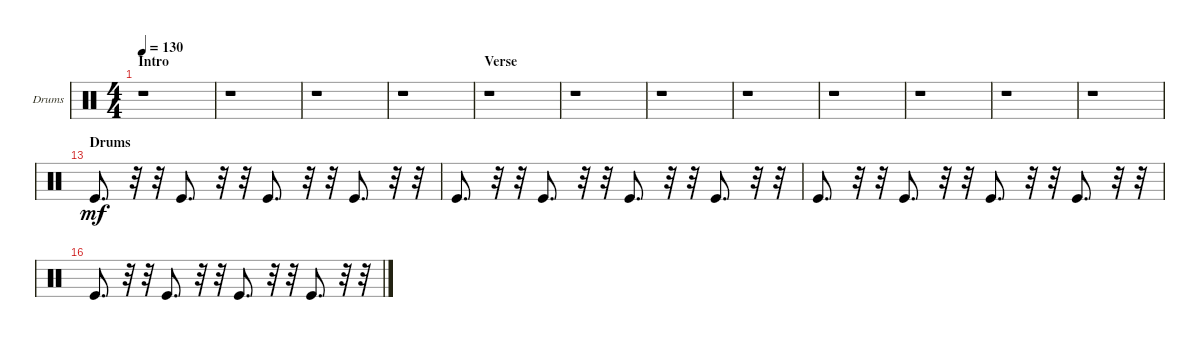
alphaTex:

\bracketExtendMode nobrackets
\firstSystemTrackNameOrientation horizontal
\otherSystemsTrackNameOrientation horizontal
\defaultBarNumberDisplay FirstOfSystem
\track ("Drumkit" "Drums") {instrument percussion}
\staff {score}
\articulation defaults
\ts (4 4)
\beaming (8 2 2 2 2)
\section ("" "Intro")
\scale
0.398927
\tempo 130
\accidentals auto
\clef neutral
\ottava regular
\simile none
\scale
0.373626
\ks c
r.1{dy mf} |
\scale
0.300537
\scale
0.208791 r.1 |
\scale
0.300537
\scale
0.208791 r.1 |
\scale
0.333333
\scale
0.208791 r.1 |
\section ("" "Verse")
\scale
0.333333
\scale
0.25 r.1 |
\scale
0.333333
\scale
0.25 r.1 |
\scale
0.333333
\scale
0.25 r.1 |
\scale
0.333333
\scale
0.25 r.1 |
\scale
0.333333
\scale
0.25 r.1 |
\scale
0.333333
\scale
0.25 r.1 |
\scale
0.333333
\scale
0.25 r.1 |
\scale
0.333333
\scale
0.25 r.1 |
\section ("" "Drums")
\scale
0.37931 "Kick (hit)".8{d} r.32 r.32 "Kick (hit)".8{d} r.32 r.32 "Kick (hit)".8{d} r.32 r.32 "Kick (hit)".8{d} r.32 r.32 |
\scale
0.241379 "Kick (hit)".8{d} r.32 r.32 "Kick (hit)".8{d} r.32 r.32 "Kick (hit)".8{d} r.32 r.32 "Kick (hit)".8{d} r.32 r.32 |
\scale
0.37931 "Kick (hit)".8{d} r.32 r.32 "Kick (hit)".8{d} r.32 r.32 "Kick (hit)".8{d} r.32 r.32 "Kick (hit)".8{d} r.32 r.32 |
\scale
0.44 "Kick (hit)".8{d} r.32 r.32 "Kick (hit)".8{d} r.32 r.32 "Kick (hit)".8{d} r.32 r.32 "Kick (hit)".8{d} r.32 r.32
